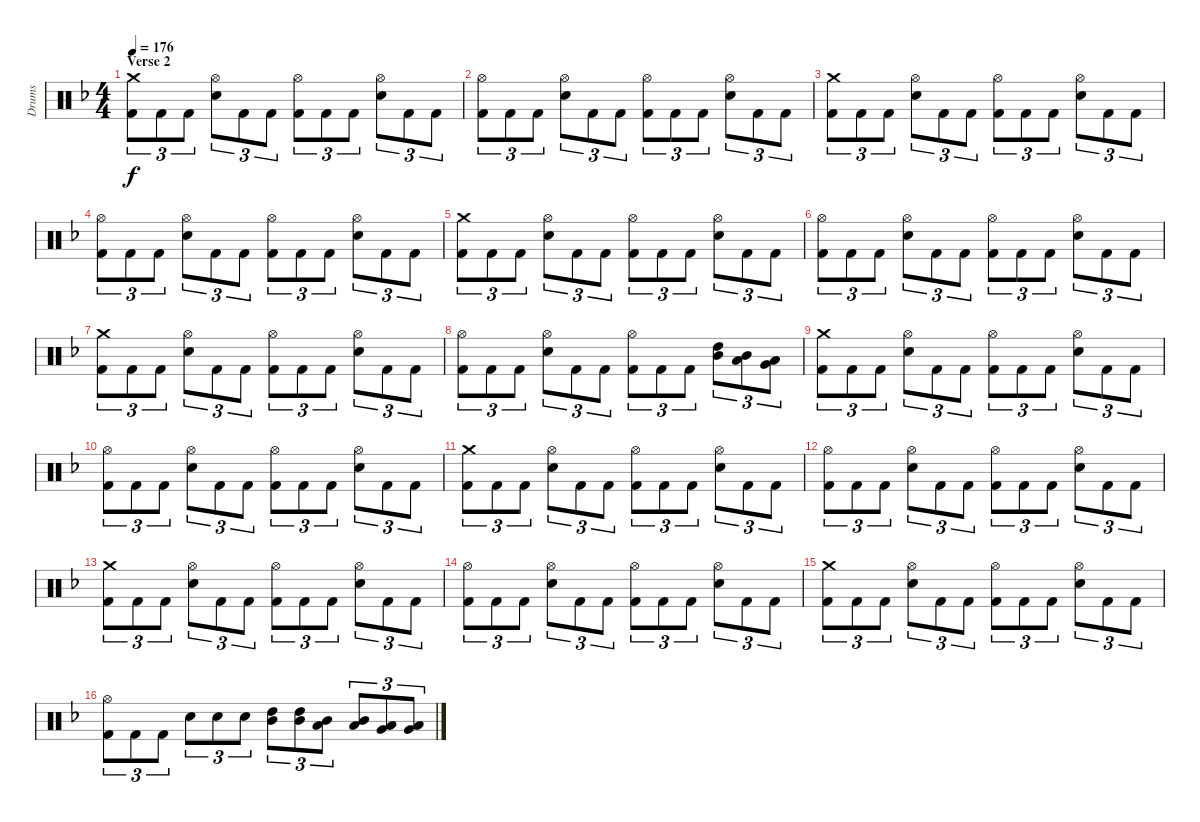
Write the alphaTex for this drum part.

\track ("Drums" "Drums") {instrument percussion}
\staff {score}
\articulation defaults
\ts (4 4)
\section ("" "Verse 2")
\tempo 176
\clef neutral
\ks f
("Crash medium (hit)" "Kick (hit) 2").8{tu (3 2) dy f} "Kick (hit) 2".8{tu (3 2)} "Kick (hit) 2".8{tu (3 2)} ("Hi-Hat (open)" "Snare (hit) 2").8{tu (3 2)} "Kick (hit) 2".8{tu (3 2)} "Kick (hit) 2".8{tu (3 2)} ("Hi-Hat (open)" "Kick (hit) 2").8{tu (3 2)} "Kick (hit) 2".8{tu (3 2)} "Kick (hit) 2".8{tu (3 2)} ("Hi-Hat (open)" "Snare (hit) 2").8{tu (3 2)} "Kick (hit) 2".8{tu (3 2)} "Kick (hit) 2".8{tu (3 2)} |
("Hi-Hat (open)" "Kick (hit) 2").8{tu (3 2)} "Kick (hit) 2".8{tu (3 2)} "Kick (hit) 2".8{tu (3 2)} ("Hi-Hat (open)" "Snare (hit) 2").8{tu (3 2)} "Kick (hit) 2".8{tu (3 2)} "Kick (hit) 2".8{tu (3 2)} ("Hi-Hat (open)" "Kick (hit) 2").8{tu (3 2)} "Kick (hit) 2".8{tu (3 2)} "Kick (hit) 2".8{tu (3 2)} ("Hi-Hat (open)" "Snare (hit) 2").8{tu (3 2)} "Kick (hit) 2".8{tu (3 2)} "Kick (hit) 2".8{tu (3 2)} |
("Crash medium (hit)" "Kick (hit) 2").8{tu (3 2)} "Kick (hit) 2".8{tu (3 2)} "Kick (hit) 2".8{tu (3 2)} ("Hi-Hat (open)" "Snare (hit) 2").8{tu (3 2)} "Kick (hit) 2".8{tu (3 2)} "Kick (hit) 2".8{tu (3 2)} ("Hi-Hat (open)" "Kick (hit) 2").8{tu (3 2)} "Kick (hit) 2".8{tu (3 2)} "Kick (hit) 2".8{tu (3 2)} ("Hi-Hat (open)" "Snare (hit) 2").8{tu (3 2)} "Kick (hit) 2".8{tu (3 2)} "Kick (hit) 2".8{tu (3 2)} |
("Hi-Hat (open)" "Kick (hit) 2").8{tu (3 2)} "Kick (hit) 2".8{tu (3 2)} "Kick (hit) 2".8{tu (3 2)} ("Hi-Hat (open)" "Snare (hit) 2").8{tu (3 2)} "Kick (hit) 2".8{tu (3 2)} "Kick (hit) 2".8{tu (3 2)} ("Hi-Hat (open)" "Kick (hit) 2").8{tu (3 2)} "Kick (hit) 2".8{tu (3 2)} "Kick (hit) 2".8{tu (3 2)} ("Hi-Hat (open)" "Snare (hit) 2").8{tu (3 2)} "Kick (hit) 2".8{tu (3 2)} "Kick (hit) 2".8{tu (3 2)} |
("Crash medium (hit)" "Kick (hit) 2").8{tu (3 2)} "Kick (hit) 2".8{tu (3 2)} "Kick (hit) 2".8{tu (3 2)} ("Hi-Hat (open)" "Snare (hit) 2").8{tu (3 2)} "Kick (hit) 2".8{tu (3 2)} "Kick (hit) 2".8{tu (3 2)} ("Hi-Hat (open)" "Kick (hit) 2").8{tu (3 2)} "Kick (hit) 2".8{tu (3 2)} "Kick (hit) 2".8{tu (3 2)} ("Hi-Hat (open)" "Snare (hit) 2").8{tu (3 2)} "Kick (hit) 2".8{tu (3 2)} "Kick (hit) 2".8{tu (3 2)} |
("Hi-Hat (open)" "Kick (hit) 2").8{tu (3 2)} "Kick (hit) 2".8{tu (3 2)} "Kick (hit) 2".8{tu (3 2)} ("Hi-Hat (open)" "Snare (hit) 2").8{tu (3 2)} "Kick (hit) 2".8{tu (3 2)} "Kick (hit) 2".8{tu (3 2)} ("Hi-Hat (open)" "Kick (hit) 2").8{tu (3 2)} "Kick (hit) 2".8{tu (3 2)} "Kick (hit) 2".8{tu (3 2)} ("Hi-Hat (open)" "Snare (hit) 2").8{tu (3 2)} "Kick (hit) 2".8{tu (3 2)} "Kick (hit) 2".8{tu (3 2)} |
("Crash medium (hit)" "Kick (hit) 2").8{tu (3 2)} "Kick (hit) 2".8{tu (3 2)} "Kick (hit) 2".8{tu (3 2)} ("Hi-Hat (open)" "Snare (hit) 2").8{tu (3 2)} "Kick (hit) 2".8{tu (3 2)} "Kick (hit) 2".8{tu (3 2)} ("Hi-Hat (open)" "Kick (hit) 2").8{tu (3 2)} "Kick (hit) 2".8{tu (3 2)} "Kick (hit) 2".8{tu (3 2)} ("Hi-Hat (open)" "Snare (hit) 2").8{tu (3 2)} "Kick (hit) 2".8{tu (3 2)} "Kick (hit) 2".8{tu (3 2)} |
("Hi-Hat (open)" "Kick (hit) 2").8{tu (3 2)} "Kick (hit) 2".8{tu (3 2)} "Kick (hit) 2".8{tu (3 2)} ("Hi-Hat (open)" "Snare (hit) 2").8{tu (3 2)} "Kick (hit) 2".8{tu (3 2)} "Kick (hit) 2".8{tu (3 2)} ("Hi-Hat (open)" "Kick (hit) 2").8{tu (3 2)} "Kick (hit) 2".8{tu (3 2)} "Kick (hit) 2".8{tu (3 2)} ("High Tom (hit)" "Mid Tom (hit)").8{tu (3 2)} ("Mid Tom (hit)" "Low Tom (hit)").8{tu (3 2)} ("Low Tom (hit)" "Very Low Tom (hit)").8{tu (3 2)} |
("Crash medium (hit)" "Kick (hit) 2").8{tu (3 2)} "Kick (hit) 2".8{tu (3 2)} "Kick (hit) 2".8{tu (3 2)} ("Hi-Hat (open)" "Snare (hit) 2").8{tu (3 2)} "Kick (hit) 2".8{tu (3 2)} "Kick (hit) 2".8{tu (3 2)} ("Hi-Hat (open)" "Kick (hit) 2").8{tu (3 2)} "Kick (hit) 2".8{tu (3 2)} "Kick (hit) 2".8{tu (3 2)} ("Hi-Hat (open)" "Snare (hit) 2").8{tu (3 2)} "Kick (hit) 2".8{tu (3 2)} "Kick (hit) 2".8{tu (3 2)} |
("Hi-Hat (open)" "Kick (hit) 2").8{tu (3 2)} "Kick (hit) 2".8{tu (3 2)} "Kick (hit) 2".8{tu (3 2)} ("Hi-Hat (open)" "Snare (hit) 2").8{tu (3 2)} "Kick (hit) 2".8{tu (3 2)} "Kick (hit) 2".8{tu (3 2)} ("Hi-Hat (open)" "Kick (hit) 2").8{tu (3 2)} "Kick (hit) 2".8{tu (3 2)} "Kick (hit) 2".8{tu (3 2)} ("Hi-Hat (open)" "Snare (hit) 2").8{tu (3 2)} "Kick (hit) 2".8{tu (3 2)} "Kick (hit) 2".8{tu (3 2)} |
("Crash medium (hit)" "Kick (hit) 2").8{tu (3 2)} "Kick (hit) 2".8{tu (3 2)} "Kick (hit) 2".8{tu (3 2)} ("Hi-Hat (open)" "Snare (hit) 2").8{tu (3 2)} "Kick (hit) 2".8{tu (3 2)} "Kick (hit) 2".8{tu (3 2)} ("Hi-Hat (open)" "Kick (hit) 2").8{tu (3 2)} "Kick (hit) 2".8{tu (3 2)} "Kick (hit) 2".8{tu (3 2)} ("Hi-Hat (open)" "Snare (hit) 2").8{tu (3 2)} "Kick (hit) 2".8{tu (3 2)} "Kick (hit) 2".8{tu (3 2)} |
("Hi-Hat (open)" "Kick (hit) 2").8{tu (3 2)} "Kick (hit) 2".8{tu (3 2)} "Kick (hit) 2".8{tu (3 2)} ("Hi-Hat (open)" "Snare (hit) 2").8{tu (3 2)} "Kick (hit) 2".8{tu (3 2)} "Kick (hit) 2".8{tu (3 2)} ("Hi-Hat (open)" "Kick (hit) 2").8{tu (3 2)} "Kick (hit) 2".8{tu (3 2)} "Kick (hit) 2".8{tu (3 2)} ("Hi-Hat (open)" "Snare (hit) 2").8{tu (3 2)} "Kick (hit) 2".8{tu (3 2)} "Kick (hit) 2".8{tu (3 2)} |
("Crash medium (hit)" "Kick (hit) 2").8{tu (3 2)} "Kick (hit) 2".8{tu (3 2)} "Kick (hit) 2".8{tu (3 2)} ("Hi-Hat (open)" "Snare (hit) 2").8{tu (3 2)} "Kick (hit) 2".8{tu (3 2)} "Kick (hit) 2".8{tu (3 2)} ("Hi-Hat (open)" "Kick (hit) 2").8{tu (3 2)} "Kick (hit) 2".8{tu (3 2)} "Kick (hit) 2".8{tu (3 2)} ("Hi-Hat (open)" "Snare (hit) 2").8{tu (3 2)} "Kick (hit) 2".8{tu (3 2)} "Kick (hit) 2".8{tu (3 2)} |
("Hi-Hat (open)" "Kick (hit) 2").8{tu (3 2)} "Kick (hit) 2".8{tu (3 2)} "Kick (hit) 2".8{tu (3 2)} ("Hi-Hat (open)" "Snare (hit) 2").8{tu (3 2)} "Kick (hit) 2".8{tu (3 2)} "Kick (hit) 2".8{tu (3 2)} ("Hi-Hat (open)" "Kick (hit) 2").8{tu (3 2)} "Kick (hit) 2".8{tu (3 2)} "Kick (hit) 2".8{tu (3 2)} ("Hi-Hat (open)" "Snare (hit) 2").8{tu (3 2)} "Kick (hit) 2".8{tu (3 2)} "Kick (hit) 2".8{tu (3 2)} |
("Crash medium (hit)" "Kick (hit) 2").8{tu (3 2)} "Kick (hit) 2".8{tu (3 2)} "Kick (hit) 2".8{tu (3 2)} ("Hi-Hat (open)" "Snare (hit) 2").8{tu (3 2)} "Kick (hit) 2".8{tu (3 2)} "Kick (hit) 2".8{tu (3 2)} ("Hi-Hat (open)" "Kick (hit) 2").8{tu (3 2)} "Kick (hit) 2".8{tu (3 2)} "Kick (hit) 2".8{tu (3 2)} ("Hi-Hat (open)" "Snare (hit) 2").8{tu (3 2)} "Kick (hit) 2".8{tu (3 2)} "Kick (hit) 2".8{tu (3 2)} |
("Hi-Hat (open)" "Kick (hit) 2").8{tu (3 2)} "Kick (hit) 2".8{tu (3 2)} "Kick (hit) 2".8{tu (3 2)} "Snare (hit) 2".8{tu (3 2)} "Snare (hit) 2".8{tu (3 2)} "Snare (hit) 2".8{tu (3 2)} ("High Tom (hit)" "Mid Tom (hit)").8{tu (3 2)} ("High Tom (hit)" "Mid Tom (hit)").8{tu (3 2)} ("Mid Tom (hit)" "Low Tom (hit)").8{tu (3 2)} ("Mid Tom (hit)" "Low Tom (hit)").8{tu (3 2)} ("Low Tom (hit)" "Very Low Tom (hit)").8{tu (3 2)} ("Low Tom (hit)" "Very Low Tom (hit)").8{tu (3 2)}
